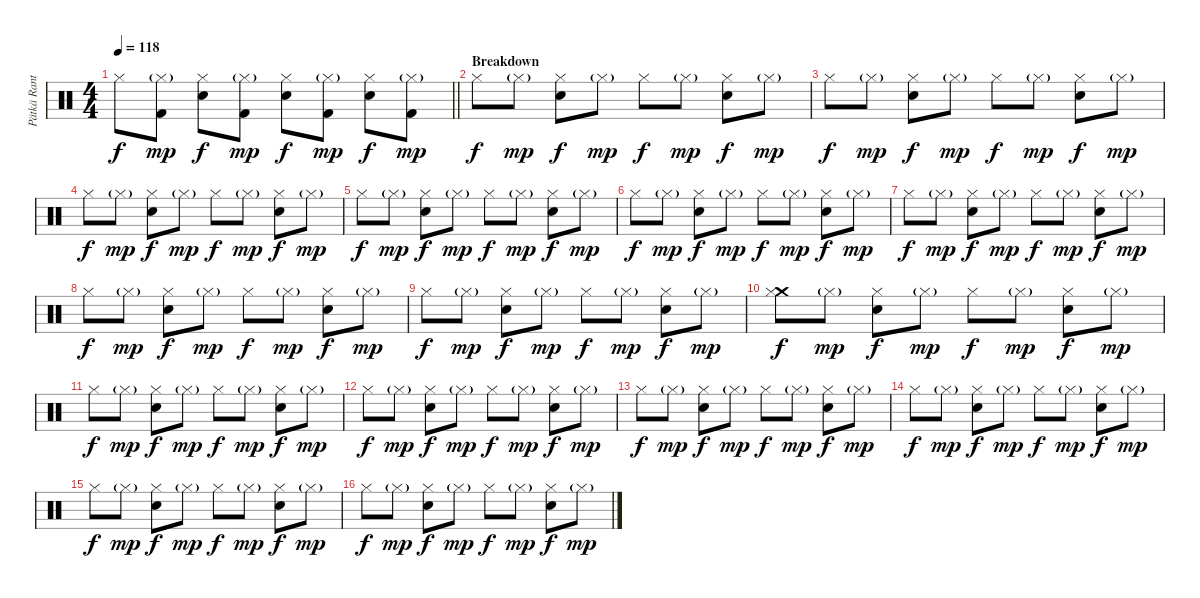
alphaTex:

\track ("Pätkä Rantala (Drums)" "Pätkä Rant") {instrument percussion}
\staff {score}
\articulation defaults
\ts (4 4)
\tempo 118
\clef neutral
\barLineRight lightlight
\ks c "Hi-Hat (closed)".8{dy f}
("Hi-Hat (closed)"{g} "Kick (hit) 2").8{dy mp} ("Hi-Hat (closed)" "Snare (hit) 2").8{dy f} ("Hi-Hat (closed)"{g} "Kick (hit) 2").8{dy mp} ("Hi-Hat (closed)" "Snare (hit) 2").8{dy f} ("Hi-Hat (closed)"{g} "Kick (hit) 2").8{dy mp} ("Hi-Hat (closed)" "Snare (hit) 2").8{dy f} ("Hi-Hat (closed)"{g} "Kick (hit) 2").8{dy mp} |
\section ("" "Breakdown")
"Hi-Hat (closed)".8{dy f} "Hi-Hat (closed)"{g}.8{dy mp} ("Hi-Hat (closed)" "Snare (hit) 2").8{dy f} "Hi-Hat (closed)"{g}.8{dy mp} "Hi-Hat (closed)".8{dy f} "Hi-Hat (closed)"{g}.8{dy mp} ("Hi-Hat (closed)" "Snare (hit) 2").8{dy f} "Hi-Hat (closed)"{g}.8{dy mp} |
"Hi-Hat (closed)".8{dy f} "Hi-Hat (closed)"{g}.8{dy mp} ("Hi-Hat (closed)" "Snare (hit) 2").8{dy f} "Hi-Hat (closed)"{g}.8{dy mp} "Hi-Hat (closed)".8{dy f} "Hi-Hat (closed)"{g}.8{dy mp} ("Hi-Hat (closed)" "Snare (hit) 2").8{dy f} "Hi-Hat (closed)"{g}.8{dy mp} |
"Hi-Hat (closed)".8{dy f} "Hi-Hat (closed)"{g}.8{dy mp} ("Hi-Hat (closed)" "Snare (hit) 2").8{dy f} "Hi-Hat (closed)"{g}.8{dy mp} "Hi-Hat (closed)".8{dy f} "Hi-Hat (closed)"{g}.8{dy mp} ("Hi-Hat (closed)" "Snare (hit) 2").8{dy f} "Hi-Hat (closed)"{g}.8{dy mp} |
"Hi-Hat (closed)".8{dy f} "Hi-Hat (closed)"{g}.8{dy mp} ("Hi-Hat (closed)" "Snare (hit) 2").8{dy f} "Hi-Hat (closed)"{g}.8{dy mp} "Hi-Hat (closed)".8{dy f} "Hi-Hat (closed)"{g}.8{dy mp} ("Hi-Hat (closed)" "Snare (hit) 2").8{dy f} "Hi-Hat (closed)"{g}.8{dy mp} |
"Hi-Hat (closed)".8{dy f} "Hi-Hat (closed)"{g}.8{dy mp} ("Hi-Hat (closed)" "Snare (hit) 2").8{dy f} "Hi-Hat (closed)"{g}.8{dy mp} "Hi-Hat (closed)".8{dy f} "Hi-Hat (closed)"{g}.8{dy mp} ("Hi-Hat (closed)" "Snare (hit) 2").8{dy f} "Hi-Hat (closed)"{g}.8{dy mp} |
"Hi-Hat (closed)".8{dy f} "Hi-Hat (closed)"{g}.8{dy mp} ("Hi-Hat (closed)" "Snare (hit) 2").8{dy f} "Hi-Hat (closed)"{g}.8{dy mp} "Hi-Hat (closed)".8{dy f} "Hi-Hat (closed)"{g}.8{dy mp} ("Hi-Hat (closed)" "Snare (hit) 2").8{dy f} "Hi-Hat (closed)"{g}.8{dy mp} |
"Hi-Hat (closed)".8{dy f} "Hi-Hat (closed)"{g}.8{dy mp} ("Hi-Hat (closed)" "Snare (hit) 2").8{dy f} "Hi-Hat (closed)"{g}.8{dy mp} "Hi-Hat (closed)".8{dy f} "Hi-Hat (closed)"{g}.8{dy mp} ("Hi-Hat (closed)" "Snare (hit) 2").8{dy f} "Hi-Hat (closed)"{g}.8{dy mp} |
"Hi-Hat (closed)".8{dy f} "Hi-Hat (closed)"{g}.8{dy mp} ("Hi-Hat (closed)" "Snare (hit) 2").8{dy f} "Hi-Hat (closed)"{g}.8{dy mp} "Hi-Hat (closed)".8{dy f} "Hi-Hat (closed)"{g}.8{dy mp} ("Hi-Hat (closed)" "Snare (hit) 2").8{dy f} "Hi-Hat (closed)"{g}.8{dy mp} |
("Crash medium (hit)" "Hi-Hat (closed)").8{dy f} "Hi-Hat (closed)"{g}.8{dy mp} ("Hi-Hat (closed)" "Snare (hit) 2").8{dy f} "Hi-Hat (closed)"{g}.8{dy mp} "Hi-Hat (closed)".8{dy f} "Hi-Hat (closed)"{g}.8{dy mp} ("Hi-Hat (closed)" "Snare (hit) 2").8{dy f} "Hi-Hat (closed)"{g}.8{dy mp} |
"Hi-Hat (closed)".8{dy f} "Hi-Hat (closed)"{g}.8{dy mp} ("Hi-Hat (closed)" "Snare (hit) 2").8{dy f} "Hi-Hat (closed)"{g}.8{dy mp} "Hi-Hat (closed)".8{dy f} "Hi-Hat (closed)"{g}.8{dy mp} ("Hi-Hat (closed)" "Snare (hit) 2").8{dy f} "Hi-Hat (closed)"{g}.8{dy mp} |
"Hi-Hat (closed)".8{dy f} "Hi-Hat (closed)"{g}.8{dy mp} ("Hi-Hat (closed)" "Snare (hit) 2").8{dy f} "Hi-Hat (closed)"{g}.8{dy mp} "Hi-Hat (closed)".8{dy f} "Hi-Hat (closed)"{g}.8{dy mp} ("Hi-Hat (closed)" "Snare (hit) 2").8{dy f} "Hi-Hat (closed)"{g}.8{dy mp} |
"Hi-Hat (closed)".8{dy f} "Hi-Hat (closed)"{g}.8{dy mp} ("Hi-Hat (closed)" "Snare (hit) 2").8{dy f} "Hi-Hat (closed)"{g}.8{dy mp} "Hi-Hat (closed)".8{dy f} "Hi-Hat (closed)"{g}.8{dy mp} ("Hi-Hat (closed)" "Snare (hit) 2").8{dy f} "Hi-Hat (closed)"{g}.8{dy mp} |
"Hi-Hat (closed)".8{dy f} "Hi-Hat (closed)"{g}.8{dy mp} ("Hi-Hat (closed)" "Snare (hit) 2").8{dy f} "Hi-Hat (closed)"{g}.8{dy mp} "Hi-Hat (closed)".8{dy f} "Hi-Hat (closed)"{g}.8{dy mp} ("Hi-Hat (closed)" "Snare (hit) 2").8{dy f} "Hi-Hat (closed)"{g}.8{dy mp} |
"Hi-Hat (closed)".8{dy f} "Hi-Hat (closed)"{g}.8{dy mp} ("Hi-Hat (closed)" "Snare (hit) 2").8{dy f} "Hi-Hat (closed)"{g}.8{dy mp} "Hi-Hat (closed)".8{dy f} "Hi-Hat (closed)"{g}.8{dy mp} ("Hi-Hat (closed)" "Snare (hit) 2").8{dy f} "Hi-Hat (closed)"{g}.8{dy mp} |
"Hi-Hat (closed)".8{dy f} "Hi-Hat (closed)"{g}.8{dy mp} ("Hi-Hat (closed)" "Snare (hit) 2").8{dy f} "Hi-Hat (closed)"{g}.8{dy mp} "Hi-Hat (closed)".8{dy f} "Hi-Hat (closed)"{g}.8{dy mp} ("Hi-Hat (closed)" "Snare (hit) 2").8{dy f} "Hi-Hat (closed)"{g}.8{dy mp}
